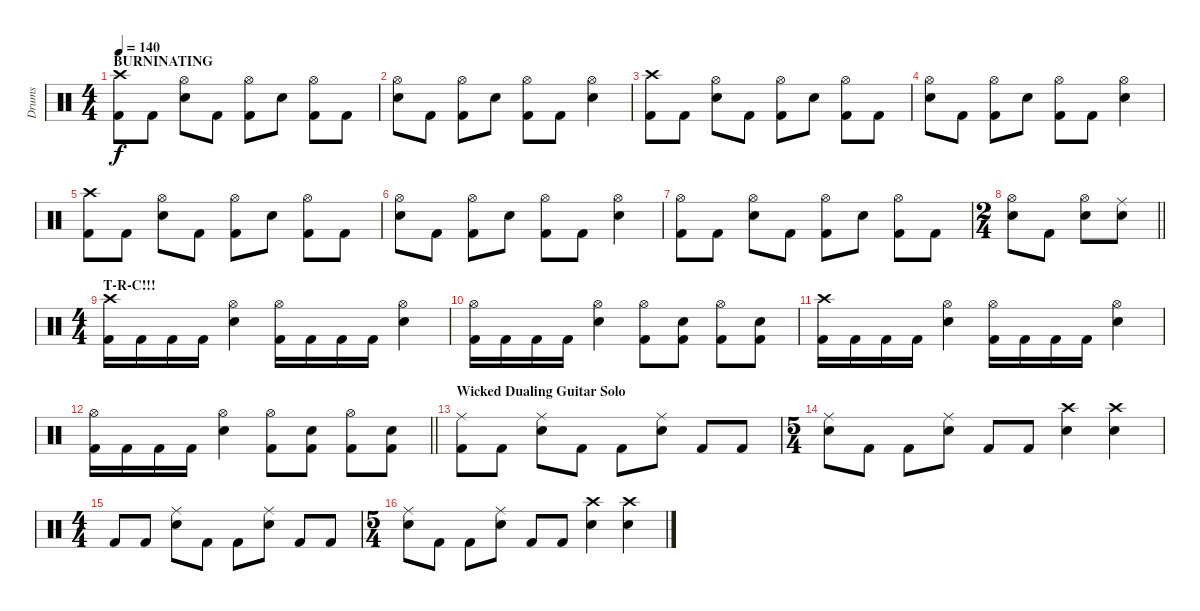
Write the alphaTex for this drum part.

\track ("Drums" "Drums") {instrument percussion}
\staff {score}
\articulation defaults
\ts (4 4)
\section ("" "BURNINATING")
\tempo 140
\clef neutral
\ks c
("Crash high (hit)" "Kick (hit) 2").8{dy f} "Kick (hit) 2".8 ("Hi-Hat (open)" "Electric Snare (hit)").8 "Kick (hit) 2".8 ("Hi-Hat (open)" "Kick (hit) 2").8 "Electric Snare (hit)".8 ("Hi-Hat (open)" "Kick (hit) 2").8 "Kick (hit) 2".8 |
("Hi-Hat (open)" "Electric Snare (hit)").8 "Kick (hit) 2".8 ("Hi-Hat (open)" "Kick (hit) 2").8 "Electric Snare (hit)".8 ("Hi-Hat (open)" "Kick (hit) 2").8 "Kick (hit) 2".8 ("Hi-Hat (open)" "Electric Snare (hit)").4 |
("Crash high (hit)" "Kick (hit) 2").8 "Kick (hit) 2".8 ("Hi-Hat (open)" "Electric Snare (hit)").8 "Kick (hit) 2".8 ("Hi-Hat (open)" "Kick (hit) 2").8 "Electric Snare (hit)".8 ("Hi-Hat (open)" "Kick (hit) 2").8 "Kick (hit) 2".8 |
("Hi-Hat (open)" "Electric Snare (hit)").8 "Kick (hit) 2".8 ("Hi-Hat (open)" "Kick (hit) 2").8 "Electric Snare (hit)".8 ("Hi-Hat (open)" "Kick (hit) 2").8 "Kick (hit) 2".8 ("Hi-Hat (open)" "Electric Snare (hit)").4 |
("Crash high (hit)" "Kick (hit) 2").8 "Kick (hit) 2".8 ("Hi-Hat (open)" "Electric Snare (hit)").8 "Kick (hit) 2".8 ("Hi-Hat (open)" "Kick (hit) 2").8 "Electric Snare (hit)".8 ("Hi-Hat (open)" "Kick (hit) 2").8 "Kick (hit) 2".8 |
("Hi-Hat (open)" "Electric Snare (hit)").8 "Kick (hit) 2".8 ("Hi-Hat (open)" "Kick (hit) 2").8 "Electric Snare (hit)".8 ("Hi-Hat (open)" "Kick (hit) 2").8 "Kick (hit) 2".8 ("Hi-Hat (open)" "Electric Snare (hit)").4 |
("Hi-Hat (open)" "Kick (hit) 2").8 "Kick (hit) 2".8 ("Hi-Hat (open)" "Electric Snare (hit)").8 "Kick (hit) 2".8 ("Hi-Hat (open)" "Kick (hit) 2").8 "Electric Snare (hit)".8 ("Hi-Hat (open)" "Kick (hit) 2").8 "Kick (hit) 2".8 |
\ts (2 4)
\barLineRight lightlight
("Hi-Hat (open)" "Electric Snare (hit)").8 "Kick (hit) 2".8 ("Hi-Hat (open)" "Electric Snare (hit)").8 ("Ride (middle)" "Electric Snare (hit)").8 |
\ts (4 4)
\section ("" "T-R-C!!!")
("Crash high (hit)" "Kick (hit) 2").16 "Kick (hit) 2".16 "Kick (hit) 2".16 "Kick (hit) 2".16 ("Hi-Hat (open)" "Electric Snare (hit)").4 ("Hi-Hat (open)" "Kick (hit) 2").16 "Kick (hit) 2".16 "Kick (hit) 2".16 "Kick (hit) 2".16 ("Hi-Hat (open)" "Electric Snare (hit)").4 |
("Hi-Hat (open)" "Kick (hit) 2").16 "Kick (hit) 2".16 "Kick (hit) 2".16 "Kick (hit) 2".16 ("Hi-Hat (open)" "Electric Snare (hit)").4 ("Hi-Hat (open)" "Kick (hit) 2").8 ("Electric Snare (hit)" "Kick (hit) 2").8 ("Hi-Hat (open)" "Kick (hit) 2").8 ("Electric Snare (hit)" "Kick (hit) 2").8 |
("Crash high (hit)" "Kick (hit) 2").16 "Kick (hit) 2".16 "Kick (hit) 2".16 "Kick (hit) 2".16 ("Hi-Hat (open)" "Electric Snare (hit)").4 ("Hi-Hat (open)" "Kick (hit) 2").16 "Kick (hit) 2".16 "Kick (hit) 2".16 "Kick (hit) 2".16 ("Hi-Hat (open)" "Electric Snare (hit)").4 |
\barLineRight lightlight
("Hi-Hat (open)" "Kick (hit) 2").16 "Kick (hit) 2".16 "Kick (hit) 2".16 "Kick (hit) 2".16 ("Hi-Hat (open)" "Electric Snare (hit)").4 ("Hi-Hat (open)" "Kick (hit) 2").8 ("Electric Snare (hit)" "Kick (hit) 2").8 ("Hi-Hat (open)" "Kick (hit) 2").8 ("Electric Snare (hit)" "Kick (hit) 2").8 |
\section ("" "Wicked Dualing Guitar Solo")
("Ride (middle)" "Kick (hit) 2").8 "Kick (hit) 2".8 ("Ride (middle)" "Electric Snare (hit)").8 "Kick (hit) 2".8 "Kick (hit) 2".8 ("Ride (middle)" "Electric Snare (hit)").8 "Kick (hit) 2".8 "Kick (hit) 2".8 |
\ts (5 4)
("Ride (middle)" "Electric Snare (hit)").8 "Kick (hit) 2".8 "Kick (hit) 2".8 ("Ride (middle)" "Electric Snare (hit)").8 "Kick (hit) 2".8 "Kick (hit) 2".8 ("Crash high (hit)" "Electric Snare (hit)").4 ("Crash high (hit)" "Electric Snare (hit)").4 |
\ts (4 4)
"Kick (hit) 2".8 "Kick (hit) 2".8 ("Ride (middle)" "Electric Snare (hit)").8 "Kick (hit) 2".8 "Kick (hit) 2".8 ("Ride (middle)" "Electric Snare (hit)").8 "Kick (hit) 2".8 "Kick (hit) 2".8 |
\ts (5 4)
("Ride (middle)" "Electric Snare (hit)").8 "Kick (hit) 2".8 "Kick (hit) 2".8 ("Ride (middle)" "Electric Snare (hit)").8 "Kick (hit) 2".8 "Kick (hit) 2".8 ("Crash high (hit)" "Electric Snare (hit)").4 ("Crash high (hit)" "Electric Snare (hit)").4
